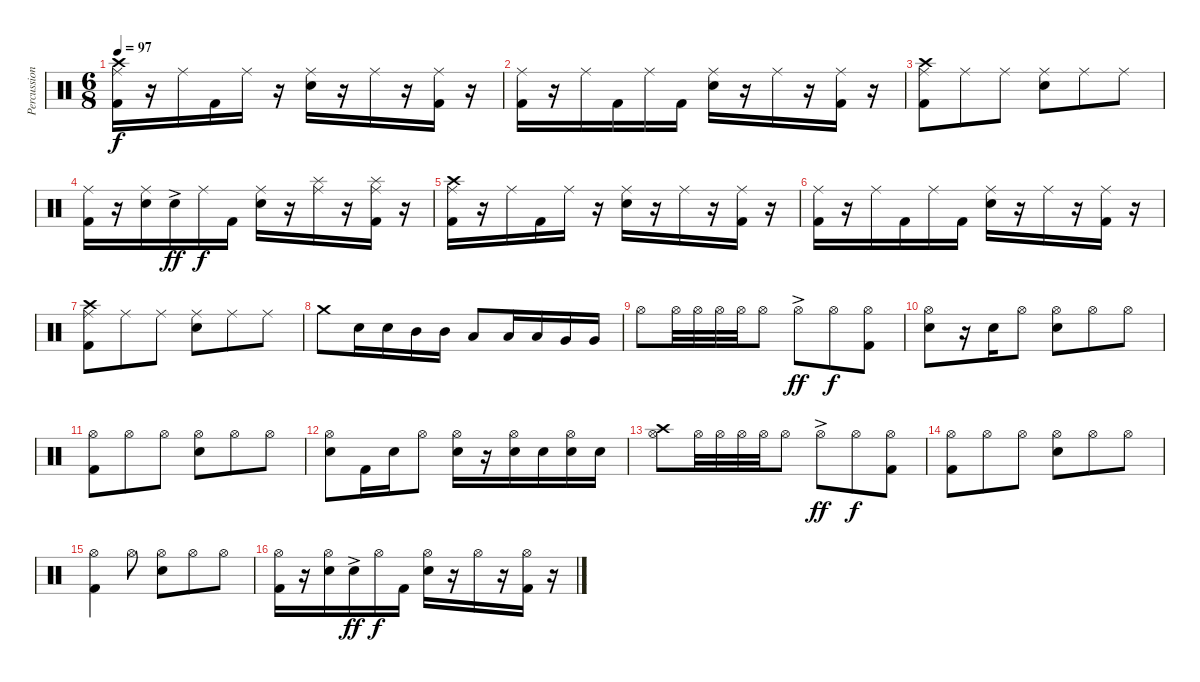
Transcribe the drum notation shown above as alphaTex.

\track ("Percussion" "Percussion") {instrument percussion}
\staff {score}
\articulation defaults
\ts (6 8)
\tempo 97
\clef neutral
\ks c
("Crash high (hit)" "Ride (middle)" "Kick (hit) 2").16{dy f} r.16 "Ride (middle)".16 "Kick (hit) 2".16 "Ride (middle)".16 r.16 ("Ride (middle)" "Electric Snare (hit)").16 r.16 "Ride (middle)".16 r.16 ("Ride (middle)" "Kick (hit) 2").16 r.16 |
("Ride (middle)" "Kick (hit) 2").16 r.16 "Ride (middle)".16 "Kick (hit) 2".16 "Ride (middle)".16 "Kick (hit) 2".16 ("Ride (middle)" "Electric Snare (hit)").16 r.16 "Ride (middle)".16 r.16 ("Ride (middle)" "Kick (hit) 2").16 r.16 |
("Crash high (hit)" "Ride (middle)" "Kick (hit) 2").8 "Ride (middle)".8 "Ride (middle)".8 ("Ride (middle)" "Electric Snare (hit)").8 "Ride (middle)".8 "Ride (middle)".8 |
("Ride (middle)" "Kick (hit) 2").16 r.16 ("Ride (middle)" "Electric Snare (hit)").16 "Electric Snare (hit)"{ac}.16{dy ff} "Ride (middle)".16{dy f} "Kick (hit) 2".16 ("Ride (middle)" "Electric Snare (hit)").16 r.16 ("Splash (hit)" "Ride (middle)").16 r.16 ("Splash (hit)" "Ride (middle)" "Kick (hit) 2").16 r.16 |
("Crash high (hit)" "Ride (middle)" "Kick (hit) 2").16 r.16 "Ride (middle)".16 "Kick (hit) 2".16 "Ride (middle)".16 r.16 ("Ride (middle)" "Electric Snare (hit)").16 r.16 "Ride (middle)".16 r.16 ("Ride (middle)" "Kick (hit) 2").16 r.16 |
("Ride (middle)" "Kick (hit) 2").16 r.16 "Ride (middle)".16 "Kick (hit) 2".16 "Ride (middle)".16 "Kick (hit) 2".16 ("Ride (middle)" "Electric Snare (hit)").16 r.16 "Ride (middle)".16 r.16 ("Ride (middle)" "Kick (hit) 2").16 r.16 |
("Crash high (hit)" "Ride (middle)" "Kick (hit) 2").8 "Ride (middle)".8 "Ride (middle)".8 ("Ride (middle)" "Electric Snare (hit)").8 "Ride (middle)".8 "Ride (middle)".8 |
"Crash medium (hit)".8 "Electric Snare (hit)".16 "Electric Snare (hit)".16 "Mid Tom (hit)".16 "Mid Tom (hit)".16 "Low Tom (hit)".8 "Low Tom (hit)".16 "Low Tom (hit)".16 "Very Low Tom (hit)".16 "Very Low Tom (hit)".16 |
"Hi-Hat (open)".8 "Hi-Hat (open)".32 "Hi-Hat (open)".32 "Hi-Hat (open)".32 "Hi-Hat (open)".32 "Hi-Hat (open)".8 "Hi-Hat (open)"{ac}.8{dy ff} "Hi-Hat (open)".8{dy f} ("Hi-Hat (open)" "Kick (hit) 2").8 |
("Hi-Hat (open)" "Electric Snare (hit)").8 r.16 "Electric Snare (hit)".16 "Hi-Hat (open)".8 ("Hi-Hat (open)" "Electric Snare (hit)").8 "Hi-Hat (open)".8 "Hi-Hat (open)".8 |
("Hi-Hat (open)" "Kick (hit) 2").8 "Hi-Hat (open)".8 "Hi-Hat (open)".8 ("Hi-Hat (open)" "Electric Snare (hit)").8 "Hi-Hat (open)".8 "Hi-Hat (open)".8 |
("Hi-Hat (open)" "Electric Snare (hit)").8 "Kick (hit) 2".16 "Electric Snare (hit)".16 "Hi-Hat (open)".8 ("Hi-Hat (open)" "Electric Snare (hit)").16 r.16 ("Hi-Hat (open)" "Electric Snare (hit)").16 "Electric Snare (hit)".16 ("Hi-Hat (open)" "Electric Snare (hit)").16 "Electric Snare (hit)".16 |
("Crash high (hit)" "Hi-Hat (open)").8 "Hi-Hat (open)".32 "Hi-Hat (open)".32 "Hi-Hat (open)".32 "Hi-Hat (open)".32 "Hi-Hat (open)".8 "Hi-Hat (open)"{ac}.8{dy ff} "Hi-Hat (open)".8{dy f} ("Hi-Hat (open)" "Kick (hit) 2").8 |
("Hi-Hat (open)" "Kick (hit) 2").8 "Hi-Hat (open)".8 "Hi-Hat (open)".8 ("Hi-Hat (open)" "Electric Snare (hit)").8 "Hi-Hat (open)".8 "Hi-Hat (open)".8 |
("Hi-Hat (open)" "Kick (hit) 2").4 "Hi-Hat (open)".8 ("Hi-Hat (open)" "Electric Snare (hit)").8 "Hi-Hat (open)".8 "Hi-Hat (open)".8 |
("Hi-Hat (open)" "Kick (hit) 2").16 r.16 ("Hi-Hat (open)" "Electric Snare (hit)").16 "Electric Snare (hit)"{ac}.16{dy ff} "Hi-Hat (open)".16{dy f} "Kick (hit) 2".16 ("Hi-Hat (open)" "Electric Snare (hit)").16 r.16 "Hi-Hat (open)".16 r.16 ("Hi-Hat (open)" "Kick (hit) 2").16 r.16
